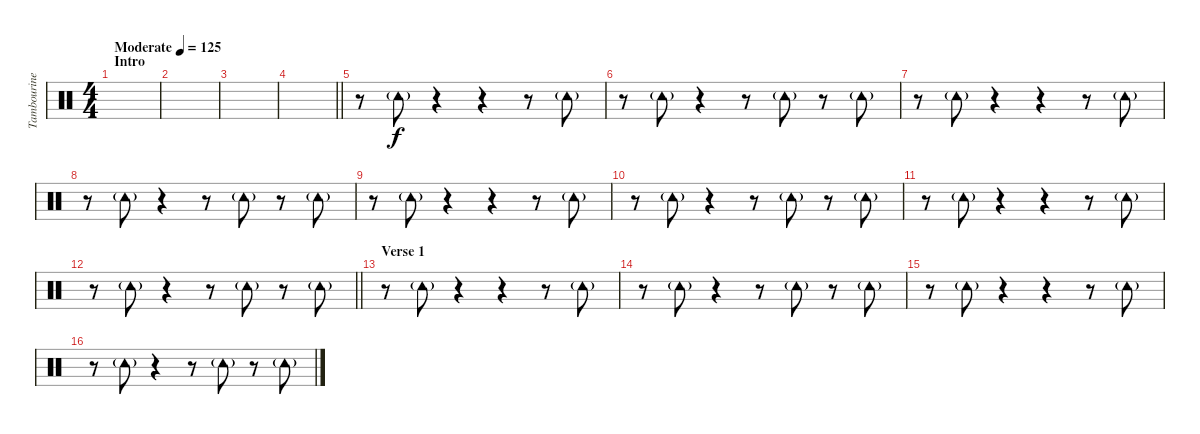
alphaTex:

\track ("Tambourine" "Tambourine") {instrument percussion}
\staff {score}
\articulation defaults
\ts (4 4)
\section ("" "Intro")
\tempo (125 "Moderate")
\clef neutral
\ks c
|
|
|
\barLineRight lightlight
|
\section ("" "")
r.8 "Tambourine (hit)"{g}.8 r.4 r.4 r.8 "Tambourine (hit)"{g}.8 |
r.8 "Tambourine (hit)"{g}.8 r.4 r.8 "Tambourine (hit)"{g}.8 r.8 "Tambourine (hit)"{g}.8 |
r.8 "Tambourine (hit)"{g}.8 r.4 r.4 r.8 "Tambourine (hit)"{g}.8 |
r.8 "Tambourine (hit)"{g}.8 r.4 r.8 "Tambourine (hit)"{g}.8 r.8 "Tambourine (hit)"{g}.8 |
r.8 "Tambourine (hit)"{g}.8 r.4 r.4 r.8 "Tambourine (hit)"{g}.8 |
r.8 "Tambourine (hit)"{g}.8 r.4 r.8 "Tambourine (hit)"{g}.8 r.8 "Tambourine (hit)"{g}.8 |
r.8 "Tambourine (hit)"{g}.8 r.4 r.4 r.8 "Tambourine (hit)"{g}.8 |
\barLineRight lightlight
r.8 "Tambourine (hit)"{g}.8 r.4 r.8 "Tambourine (hit)"{g}.8 r.8 "Tambourine (hit)"{g}.8 |
\section ("" "Verse 1")
r.8 "Tambourine (hit)"{g}.8 r.4 r.4 r.8 "Tambourine (hit)"{g}.8 |
r.8 "Tambourine (hit)"{g}.8 r.4 r.8 "Tambourine (hit)"{g}.8 r.8 "Tambourine (hit)"{g}.8 |
r.8 "Tambourine (hit)"{g}.8 r.4 r.4 r.8 "Tambourine (hit)"{g}.8 |
r.8 "Tambourine (hit)"{g}.8 r.4 r.8 "Tambourine (hit)"{g}.8 r.8 "Tambourine (hit)"{g}.8
